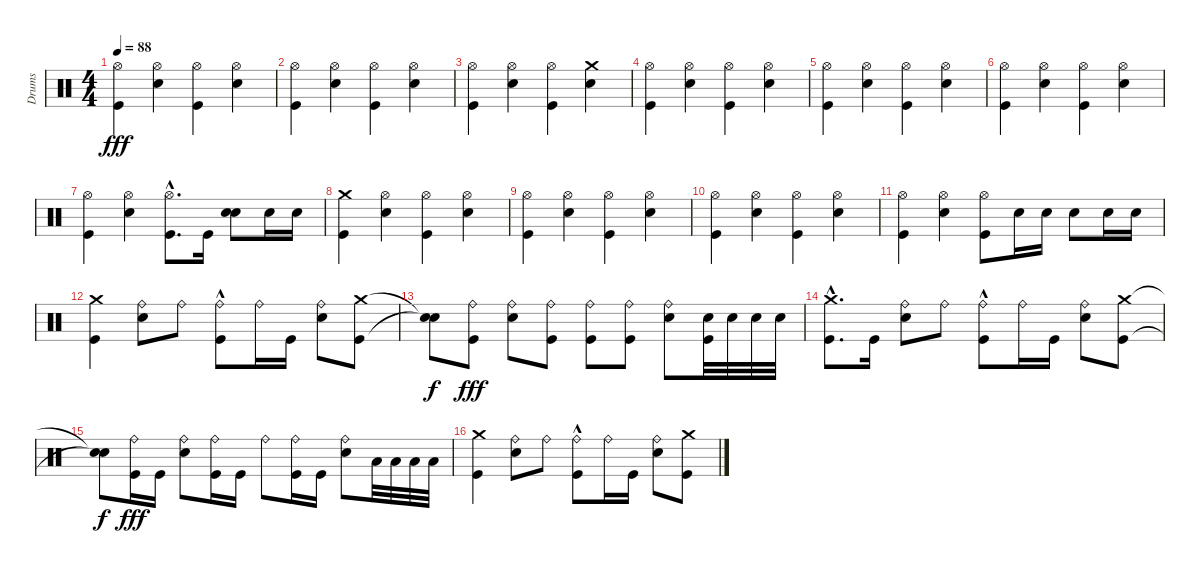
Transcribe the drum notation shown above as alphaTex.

\track ("Drums" "Drums") {instrument percussion}
\staff {score}
\articulation defaults
\ts (4 4)
\tempo 88
\clef neutral
\ks c
("Kick (hit)" "Hi-Hat (open)").4{dy fff} ("Hi-Hat (open)" "Electric Snare (hit)").4 ("Kick (hit)" "Hi-Hat (open)").4 ("Electric Snare (hit)" "Hi-Hat (open)").4 |
("Kick (hit)" "Hi-Hat (open)").4 ("Hi-Hat (open)" "Electric Snare (hit)").4 ("Kick (hit)" "Hi-Hat (open)").4 ("Electric Snare (hit)" "Hi-Hat (open)").4 |
("Kick (hit)" "Hi-Hat (open)").4 ("Hi-Hat (open)" "Electric Snare (hit)").4 ("Kick (hit)" "Hi-Hat (open)").4 ("Electric Snare (hit)" "Crash medium (hit)").4 |
("Kick (hit)" "Hi-Hat (open)").4 ("Hi-Hat (open)" "Electric Snare (hit)").4 ("Kick (hit)" "Hi-Hat (open)").4 ("Electric Snare (hit)" "Hi-Hat (open)").4 |
("Kick (hit)" "Hi-Hat (open)").4 ("Hi-Hat (open)" "Electric Snare (hit)").4 ("Kick (hit)" "Hi-Hat (open)").4 ("Electric Snare (hit)" "Hi-Hat (open)").4 |
("Kick (hit)" "Hi-Hat (open)").4 ("Hi-Hat (open)" "Electric Snare (hit)").4 ("Kick (hit)" "Hi-Hat (open)").4 ("Electric Snare (hit)" "Hi-Hat (open)").4 |
("Kick (hit)" "Hi-Hat (open)").4 ("Hi-Hat (open)" "Electric Snare (hit)").4 ("Kick (hit)"{hac} "Hi-Hat (open)").8{d} "Kick (hit)".16 ("Electric Snare (hit)" "Electric Snare (hit)").8 "Electric Snare (hit)".16 "Electric Snare (hit)".16 |
("Kick (hit)" "Crash medium (hit)").4 ("Hi-Hat (open)" "Electric Snare (hit)").4 ("Kick (hit)" "Hi-Hat (open)").4 ("Electric Snare (hit)" "Hi-Hat (open)").4 |
("Kick (hit)" "Hi-Hat (open)").4 ("Hi-Hat (open)" "Electric Snare (hit)").4 ("Kick (hit)" "Hi-Hat (open)").4 ("Electric Snare (hit)" "Hi-Hat (open)").4 |
("Kick (hit)" "Hi-Hat (open)").4 ("Hi-Hat (open)" "Electric Snare (hit)").4 ("Kick (hit)" "Hi-Hat (open)").4 ("Electric Snare (hit)" "Hi-Hat (open)").4 |
("Kick (hit)" "Hi-Hat (open)").4 ("Hi-Hat (open)" "Electric Snare (hit)").4 ("Kick (hit)" "Hi-Hat (open)").8 "Electric Snare (hit)".16 "Electric Snare (hit)".16 "Electric Snare (hit)".8 "Electric Snare (hit)".16 "Electric Snare (hit)".16 |
("Kick (hit)" "Crash medium (hit)").4 ("Electric Snare (hit)" "Ride (bell)").8 "Ride (bell)".8 ("Kick (hit)"{hac} "Ride (bell)").8 "Ride (bell)".16 "Kick (hit)".16 ("Electric Snare (hit)" "Ride (bell)").8 ("Kick (hit)" "Crash medium (hit)").8 |
("Snare (hit)"{t} "Snare (hit)"{t}).8{dy f} ("Kick (hit)" "Ride (bell)").8{dy fff} ("Ride (bell)" "Electric Snare (hit)").8 ("Kick (hit)" "Ride (bell)").8 ("Ride (bell)" "Kick (hit)").8 ("Ride (bell)" "Kick (hit)").8 ("Electric Snare (hit)" "Ride (bell)").8 ("Kick (hit)" "Electric Snare (hit)").32 "Electric Snare (hit)".32 "Electric Snare (hit)".32 "Electric Snare (hit)".32 |
("Crash medium (hit)" "Kick (hit)"{hac}).8{d} "Kick (hit)".16 ("Electric Snare (hit)" "Ride (bell)").8 "Ride (bell)".8 ("Kick (hit)"{hac} "Ride (bell)").8 "Ride (bell)".16 "Kick (hit)".16 ("Ride (bell)" "Electric Snare (hit)").8 ("Kick (hit)" "Crash medium (hit)").8 |
("Snare (hit)"{t} "Snare (hit)"{t}).8{dy f} ("Kick (hit)" "Ride (bell)").16{dy fff} "Kick (hit)".16 ("Ride (bell)" "Electric Snare (hit)").8 ("Ride (bell)" "Kick (hit)").16 "Kick (hit)".16 "Ride (bell)".8 ("Ride (bell)" "Kick (hit)").16 "Kick (hit)".16 ("Electric Snare (hit)" "Ride (bell)").8 "Low Floor Tom (hit)".32 "Low Floor Tom (hit)".32 "Low Floor Tom (hit)".32 "Low Floor Tom (hit)".32 |
("Kick (hit)" "Crash medium (hit)").4 ("Electric Snare (hit)" "Ride (bell)").8 "Ride (bell)".8 ("Kick (hit)"{hac} "Ride (bell)").8 "Ride (bell)".16 "Kick (hit)".16 ("Electric Snare (hit)" "Ride (bell)").8 ("Crash medium (hit)" "Kick (hit)").8
